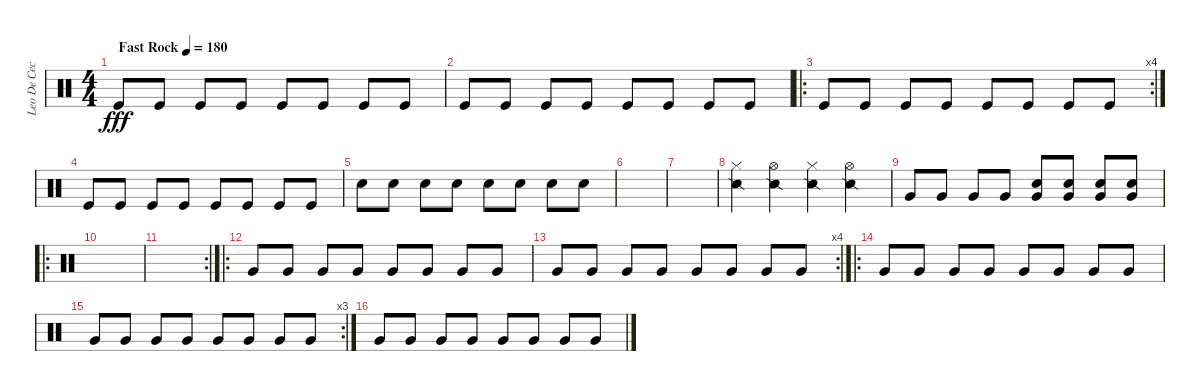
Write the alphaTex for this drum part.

\track ("Leo De Cecco" "Leo De Cec") {instrument percussion}
\staff {score}
\articulation defaults
\ts (4 4)
\tempo (180 "Fast Rock")
\clef neutral
\ks c "Kick (hit)".8{dy fff} "Kick (hit)".8 "Kick (hit)".8 "Kick (hit)".8 "Kick (hit)".8 "Kick (hit)".8 "Kick (hit)".8 "Kick (hit)".8
|
"Kick (hit)".8 "Kick (hit)".8 "Kick (hit)".8 "Kick (hit)".8 "Kick (hit)".8 "Kick (hit)".8 "Kick (hit)".8 "Kick (hit)".8 |
\ro
\rc 4 "Kick (hit)".8 "Kick (hit)".8 "Kick (hit)".8 "Kick (hit)".8 "Kick (hit)".8 "Kick (hit)".8 "Kick (hit)".8 "Kick (hit)".8
|
"Kick (hit)".8 "Kick (hit)".8 "Kick (hit)".8 "Kick (hit)".8 "Kick (hit)".8 "Kick (hit)".8 "Kick (hit)".8 "Kick (hit)".8 |
"Snare (hit) 2".8 "Snare (hit) 2".8 "Electric Snare (hit)".8 "Electric Snare (hit)".8 "Electric Snare (hit)".8 "Electric Snare (hit)".8 "Electric Snare (hit)".8 "Electric Snare (hit)".8 |
|
|
("Snare (side stick) 2" "Hi-Hat (closed)").4 ("Snare (side stick) 2" "Hi-Hat (open)").4 ("Snare (side stick) 2" "Hi-Hat (closed)").4 ("Snare (side stick) 2" "Hi-Hat (open)").4 |
"Very Low Tom (hit)".8 "Very Low Tom (hit)".8 "Very Low Tom (hit)".8 "Very Low Tom (hit)".8 ("Very Low Tom (hit)" "Electric Snare (hit)").8 ("Very Low Tom (hit)" "Electric Snare (hit)").8 ("Very Low Tom (hit)" "Electric Snare (hit)").8 ("Very Low Tom (hit)" "Electric Snare (hit)").8 |
\ro
|
\rc 2
|
\ro "Very Low Tom (hit)".8 "Very Low Tom (hit)".8 "Very Low Tom (hit)".8 "Very Low Tom (hit)".8 "Very Low Tom (hit)".8 "Very Low Tom (hit)".8 "Very Low Tom (hit)".8 "Very Low Tom (hit)".8
|
\rc 4 "Very Low Tom (hit)".8 "Very Low Tom (hit)".8 "Very Low Tom (hit)".8 "Very Low Tom (hit)".8 "Very Low Tom (hit)".8 "Very Low Tom (hit)".8 "Very Low Tom (hit)".8 "Very Low Tom (hit)".8
|
\ro "Very Low Tom (hit)".8 "Very Low Tom (hit)".8 "Very Low Tom (hit)".8 "Very Low Tom (hit)".8 "Very Low Tom (hit)".8 "Very Low Tom (hit)".8 "Very Low Tom (hit)".8 "Very Low Tom (hit)".8
|
\rc 3 "Very Low Tom (hit)".8 "Very Low Tom (hit)".8 "Very Low Tom (hit)".8 "Very Low Tom (hit)".8 "Very Low Tom (hit)".8 "Very Low Tom (hit)".8 "Very Low Tom (hit)".8 "Very Low Tom (hit)".8
|
"Very Low Tom (hit)".8 "Very Low Tom (hit)".8 "Very Low Tom (hit)".8 "Very Low Tom (hit)".8 "Very Low Tom (hit)".8 "Very Low Tom (hit)".8 "Very Low Tom (hit)".8 "Very Low Tom (hit)".8
